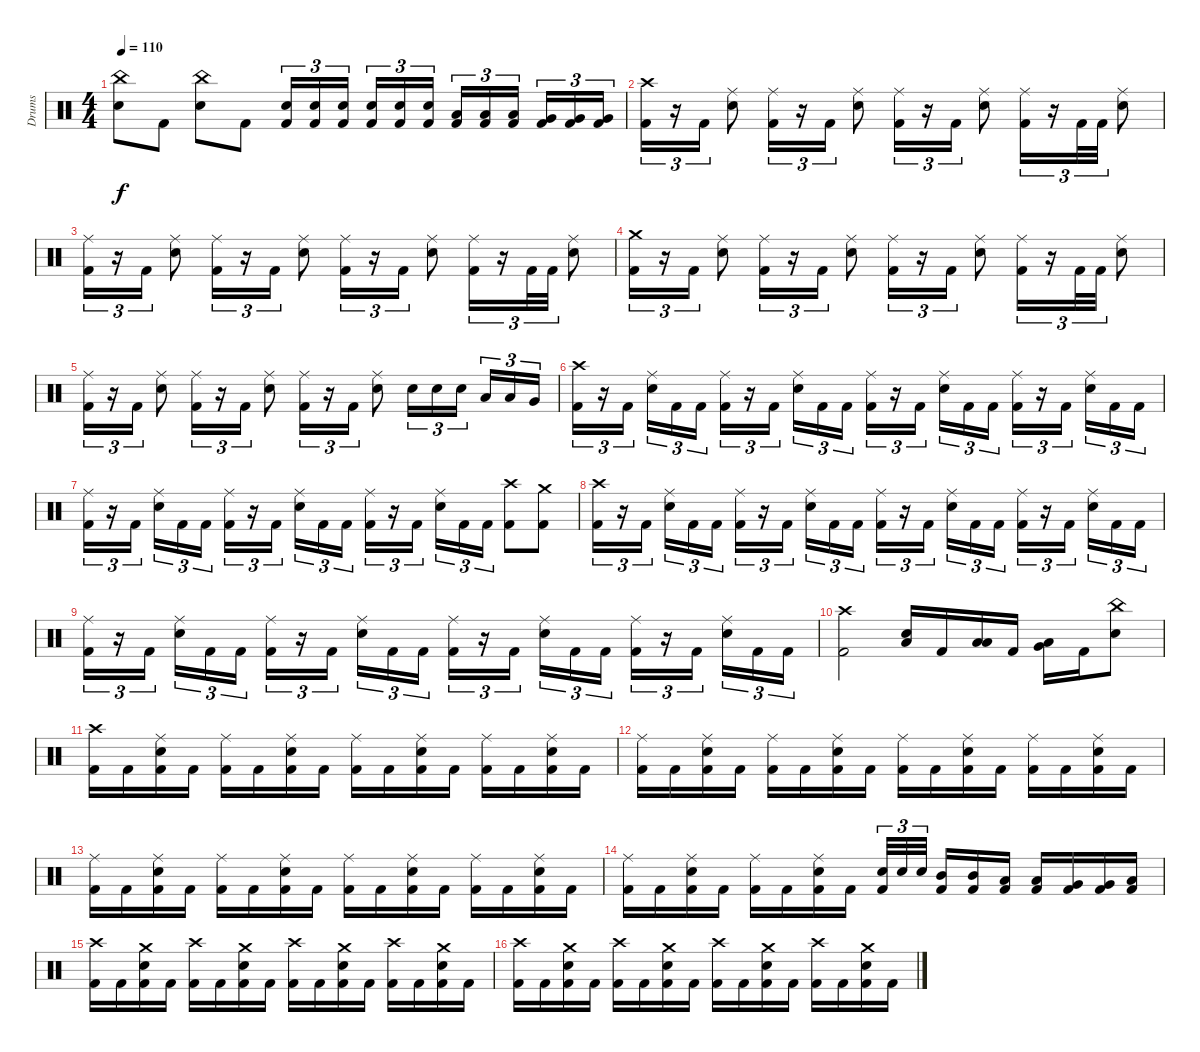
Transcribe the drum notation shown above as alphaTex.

\track ("Drums" "Drums") {instrument percussion}
\staff {score}
\articulation defaults
\ts (4 4)
\tempo 110
\clef neutral
\ks c
("China (hit)" "Electric Snare (hit)").8{dy f} "Kick (hit) 2".8 ("China (hit)" "Electric Snare (hit)").8 "Kick (hit) 2".8 ("Electric Snare (hit)" "Kick (hit) 2").16{tu (3 2)} ("Electric Snare (hit)" "Kick (hit) 2").16{tu (3 2)} ("Electric Snare (hit)" "Kick (hit) 2").16{tu (3 2)} ("Electric Snare (hit)" "Kick (hit) 2").16{tu (3 2)} ("Electric Snare (hit)" "Kick (hit) 2").16{tu (3 2)} ("Electric Snare (hit)" "Kick (hit) 2").16{tu (3 2)} ("Low Tom (hit)" "Kick (hit) 2").16{tu (3 2)} ("Low Tom (hit)" "Kick (hit) 2").16{tu (3 2)} ("Low Tom (hit)" "Kick (hit) 2").16{tu (3 2)} ("Very Low Tom (hit)" "Kick (hit) 2").16{tu (3 2)} ("Very Low Tom (hit)" "Kick (hit) 2").16{tu (3 2)} ("Very Low Tom (hit)" "Kick (hit) 2").16{tu (3 2)} |
("Crash high (hit)" "Kick (hit) 2").16{tu (3 2)} r.16{tu (3 2)} "Kick (hit) 2".16{tu (3 2)} ("Ride (middle)" "Electric Snare (hit)").8 ("Ride (middle)" "Kick (hit) 2").16{tu (3 2)} r.16{tu (3 2)} "Kick (hit) 2".16{tu (3 2)} ("Ride (middle)" "Electric Snare (hit)").8 ("Ride (middle)" "Kick (hit) 2").16{tu (3 2)} r.16{tu (3 2)} "Kick (hit) 2".16{tu (3 2)} ("Ride (middle)" "Electric Snare (hit)").8 ("Ride (middle)" "Kick (hit) 2").16{tu (3 2)} r.16{tu (3 2)} "Kick (hit) 2".32{tu (3 2)} "Kick (hit) 2".32{tu (3 2)} ("Ride (middle)" "Electric Snare (hit)").8 |
("Ride (middle)" "Kick (hit) 2").16{tu (3 2)} r.16{tu (3 2)} "Kick (hit) 2".16{tu (3 2)} ("Ride (middle)" "Electric Snare (hit)").8 ("Ride (middle)" "Kick (hit) 2").16{tu (3 2)} r.16{tu (3 2)} "Kick (hit) 2".16{tu (3 2)} ("Ride (middle)" "Electric Snare (hit)").8 ("Ride (middle)" "Kick (hit) 2").16{tu (3 2)} r.16{tu (3 2)} "Kick (hit) 2".16{tu (3 2)} ("Ride (middle)" "Electric Snare (hit)").8 ("Ride (middle)" "Kick (hit) 2").16{tu (3 2)} r.16{tu (3 2)} "Kick (hit) 2".32{tu (3 2)} "Kick (hit) 2".32{tu (3 2)} ("Ride (middle)" "Electric Snare (hit)").8 |
("Crash medium (hit)" "Kick (hit) 2").16{tu (3 2)} r.16{tu (3 2)} "Kick (hit) 2".16{tu (3 2)} ("Ride (middle)" "Electric Snare (hit)").8 ("Ride (middle)" "Kick (hit) 2").16{tu (3 2)} r.16{tu (3 2)} "Kick (hit) 2".16{tu (3 2)} ("Ride (middle)" "Electric Snare (hit)").8 ("Ride (middle)" "Kick (hit) 2").16{tu (3 2)} r.16{tu (3 2)} "Kick (hit) 2".16{tu (3 2)} ("Ride (middle)" "Electric Snare (hit)").8 ("Ride (middle)" "Kick (hit) 2").16{tu (3 2)} r.16{tu (3 2)} "Kick (hit) 2".32{tu (3 2)} "Kick (hit) 2".32{tu (3 2)} ("Ride (middle)" "Electric Snare (hit)").8 |
("Ride (middle)" "Kick (hit) 2").16{tu (3 2)} r.16{tu (3 2)} "Kick (hit) 2".16{tu (3 2)} ("Ride (middle)" "Electric Snare (hit)").8 ("Ride (middle)" "Kick (hit) 2").16{tu (3 2)} r.16{tu (3 2)} "Kick (hit) 2".16{tu (3 2)} ("Ride (middle)" "Electric Snare (hit)").8 ("Ride (middle)" "Kick (hit) 2").16{tu (3 2)} r.16{tu (3 2)} "Kick (hit) 2".16{tu (3 2)} ("Ride (middle)" "Electric Snare (hit)").8 "Electric Snare (hit)".16{tu (3 2)} "Electric Snare (hit)".16{tu (3 2)} "Electric Snare (hit)".16{tu (3 2)} "Low Tom (hit)".16{tu (3 2)} "Low Tom (hit)".16{tu (3 2)} "Very Low Tom (hit)".16{tu (3 2)} |
("Crash high (hit)" "Kick (hit) 2").16{tu (3 2)} r.16{tu (3 2)} "Kick (hit) 2".16{tu (3 2)} ("Ride (middle)" "Electric Snare (hit)").16{tu (3 2)} "Kick (hit) 2".16{tu (3 2)} "Kick (hit) 2".16{tu (3 2)} ("Ride (middle)" "Kick (hit) 2").16{tu (3 2)} r.16{tu (3 2)} "Kick (hit) 2".16{tu (3 2)} ("Ride (middle)" "Electric Snare (hit)").16{tu (3 2)} "Kick (hit) 2".16{tu (3 2)} "Kick (hit) 2".16{tu (3 2)} ("Ride (middle)" "Kick (hit) 2").16{tu (3 2)} r.16{tu (3 2)} "Kick (hit) 2".16{tu (3 2)} ("Ride (middle)" "Electric Snare (hit)").16{tu (3 2)} "Kick (hit) 2".16{tu (3 2)} "Kick (hit) 2".16{tu (3 2)} ("Ride (middle)" "Kick (hit) 2").16{tu (3 2)} r.16{tu (3 2)} "Kick (hit) 2".16{tu (3 2)} ("Ride (middle)" "Electric Snare (hit)").16{tu (3 2)} "Kick (hit) 2".16{tu (3 2)} "Kick (hit) 2".16{tu (3 2)} |
("Ride (middle)" "Kick (hit) 2").16{tu (3 2)} r.16{tu (3 2)} "Kick (hit) 2".16{tu (3 2)} ("Ride (middle)" "Electric Snare (hit)").16{tu (3 2)} "Kick (hit) 2".16{tu (3 2)} "Kick (hit) 2".16{tu (3 2)} ("Ride (middle)" "Kick (hit) 2").16{tu (3 2)} r.16{tu (3 2)} "Kick (hit) 2".16{tu (3 2)} ("Ride (middle)" "Electric Snare (hit)").16{tu (3 2)} "Kick (hit) 2".16{tu (3 2)} "Kick (hit) 2".16{tu (3 2)} ("Ride (middle)" "Kick (hit) 2").16{tu (3 2)} r.16{tu (3 2)} "Kick (hit) 2".16{tu (3 2)} ("Ride (middle)" "Electric Snare (hit)").16{tu (3 2)} "Kick (hit) 2".16{tu (3 2)} "Kick (hit) 2".16{tu (3 2)} ("Crash high (hit)" "Kick (hit) 2").8 ("Crash medium (hit)" "Kick (hit) 2").8 |
("Crash high (hit)" "Kick (hit) 2").16{tu (3 2)} r.16{tu (3 2)} "Kick (hit) 2".16{tu (3 2)} ("Ride (middle)" "Electric Snare (hit)").16{tu (3 2)} "Kick (hit) 2".16{tu (3 2)} "Kick (hit) 2".16{tu (3 2)} ("Ride (middle)" "Kick (hit) 2").16{tu (3 2)} r.16{tu (3 2)} "Kick (hit) 2".16{tu (3 2)} ("Ride (middle)" "Electric Snare (hit)").16{tu (3 2)} "Kick (hit) 2".16{tu (3 2)} "Kick (hit) 2".16{tu (3 2)} ("Ride (middle)" "Kick (hit) 2").16{tu (3 2)} r.16{tu (3 2)} "Kick (hit) 2".16{tu (3 2)} ("Ride (middle)" "Electric Snare (hit)").16{tu (3 2)} "Kick (hit) 2".16{tu (3 2)} "Kick (hit) 2".16{tu (3 2)} ("Ride (middle)" "Kick (hit) 2").16{tu (3 2)} r.16{tu (3 2)} "Kick (hit) 2".16{tu (3 2)} ("Ride (middle)" "Electric Snare (hit)").16{tu (3 2)} "Kick (hit) 2".16{tu (3 2)} "Kick (hit) 2".16{tu (3 2)} |
("Ride (middle)" "Kick (hit) 2").16{tu (3 2)} r.16{tu (3 2)} "Kick (hit) 2".16{tu (3 2)} ("Ride (middle)" "Electric Snare (hit)").16{tu (3 2)} "Kick (hit) 2".16{tu (3 2)} "Kick (hit) 2".16{tu (3 2)} ("Ride (middle)" "Kick (hit) 2").16{tu (3 2)} r.16{tu (3 2)} "Kick (hit) 2".16{tu (3 2)} ("Ride (middle)" "Electric Snare (hit)").16{tu (3 2)} "Kick (hit) 2".16{tu (3 2)} "Kick (hit) 2".16{tu (3 2)} ("Ride (middle)" "Kick (hit) 2").16{tu (3 2)} r.16{tu (3 2)} "Kick (hit) 2".16{tu (3 2)} ("Ride (middle)" "Electric Snare (hit)").16{tu (3 2)} "Kick (hit) 2".16{tu (3 2)} "Kick (hit) 2".16{tu (3 2)} ("Ride (middle)" "Kick (hit) 2").16{tu (3 2)} r.16{tu (3 2)} "Kick (hit) 2".16{tu (3 2)} ("Ride (middle)" "Electric Snare (hit)").16{tu (3 2)} "Kick (hit) 2".16{tu (3 2)} "Kick (hit) 2".16{tu (3 2)} |
("Crash high (hit)" "Kick (hit) 2").2 ("Low Floor Tom (hit)" "Electric Snare (hit)").16 "Kick (hit) 2".16 ("Low Tom (hit)" "Low Floor Tom (hit)").16 "Kick (hit) 2".16 ("Very Low Tom (hit)" "Low Floor Tom (hit)").16 "Kick (hit) 2".16 ("China (hit)" "Electric Snare (hit)").8 |
("Crash high (hit)" "Kick (hit) 2").16 "Kick (hit) 2".16 ("Ride (middle)" "Electric Snare (hit)" "Kick (hit) 2").16 "Kick (hit) 2".16 ("Ride (middle)" "Kick (hit) 2").16 "Kick (hit) 2".16 ("Ride (middle)" "Electric Snare (hit)" "Kick (hit) 2").16 "Kick (hit) 2".16 ("Ride (middle)" "Kick (hit) 2").16 "Kick (hit) 2".16 ("Ride (middle)" "Electric Snare (hit)" "Kick (hit) 2").16 "Kick (hit) 2".16 ("Ride (middle)" "Kick (hit) 2").16 "Kick (hit) 2".16 ("Ride (middle)" "Electric Snare (hit)" "Kick (hit) 2").16 "Kick (hit) 2".16 |
("Ride (middle)" "Kick (hit) 2").16 "Kick (hit) 2".16 ("Ride (middle)" "Electric Snare (hit)" "Kick (hit) 2").16 "Kick (hit) 2".16 ("Ride (middle)" "Kick (hit) 2").16 "Kick (hit) 2".16 ("Ride (middle)" "Electric Snare (hit)" "Kick (hit) 2").16 "Kick (hit) 2".16 ("Ride (middle)" "Kick (hit) 2").16 "Kick (hit) 2".16 ("Ride (middle)" "Electric Snare (hit)" "Kick (hit) 2").16 "Kick (hit) 2".16 ("Ride (middle)" "Kick (hit) 2").16 "Kick (hit) 2".16 ("Ride (middle)" "Electric Snare (hit)" "Kick (hit) 2").16 "Kick (hit) 2".16 |
("Ride (middle)" "Kick (hit) 2").16 "Kick (hit) 2".16 ("Ride (middle)" "Electric Snare (hit)" "Kick (hit) 2").16 "Kick (hit) 2".16 ("Ride (middle)" "Kick (hit) 2").16 "Kick (hit) 2".16 ("Ride (middle)" "Electric Snare (hit)" "Kick (hit) 2").16 "Kick (hit) 2".16 ("Ride (middle)" "Kick (hit) 2").16 "Kick (hit) 2".16 ("Ride (middle)" "Electric Snare (hit)" "Kick (hit) 2").16 "Kick (hit) 2".16 ("Ride (middle)" "Kick (hit) 2").16 "Kick (hit) 2".16 ("Ride (middle)" "Electric Snare (hit)" "Kick (hit) 2").16 "Kick (hit) 2".16 |
("Ride (middle)" "Kick (hit) 2").16 "Kick (hit) 2".16 ("Ride (middle)" "Electric Snare (hit)" "Kick (hit) 2").16 "Kick (hit) 2".16 ("Ride (middle)" "Kick (hit) 2").16 "Kick (hit) 2".16 ("Ride (middle)" "Electric Snare (hit)" "Kick (hit) 2").16 "Kick (hit) 2".16 ("Electric Snare (hit)" "Kick (hit) 2").32{tu (3 2)} "Electric Snare (hit)".32{tu (3 2)} "Electric Snare (hit)".32{tu (3 2)} ("Mid Tom (hit)" "Kick (hit) 2").16 ("Mid Tom (hit)" "Kick (hit) 2").16 ("Low Tom (hit)" "Kick (hit) 2").16 ("Low Tom (hit)" "Kick (hit) 2").16 ("Very Low Tom (hit)" "Kick (hit) 2").16 ("Very Low Tom (hit)" "Kick (hit) 2").16 ("Low Floor Tom (hit)" "Kick (hit) 2").16 |
("Crash high (hit)" "Kick (hit) 2").16 "Kick (hit) 2".16 ("Crash medium (hit)" "Electric Snare (hit)" "Kick (hit) 2").16 "Kick (hit) 2".16 ("Crash high (hit)" "Kick (hit) 2").16 "Kick (hit) 2".16 ("Crash medium (hit)" "Electric Snare (hit)" "Kick (hit) 2").16 "Kick (hit) 2".16 ("Crash high (hit)" "Kick (hit) 2").16 "Kick (hit) 2".16 ("Crash medium (hit)" "Electric Snare (hit)" "Kick (hit) 2").16 "Kick (hit) 2".16 ("Crash high (hit)" "Kick (hit) 2").16 "Kick (hit) 2".16 ("Crash medium (hit)" "Electric Snare (hit)" "Kick (hit) 2").16 "Kick (hit) 2".16 |
("Crash high (hit)" "Kick (hit) 2").16 "Kick (hit) 2".16 ("Crash medium (hit)" "Electric Snare (hit)" "Kick (hit) 2").16 "Kick (hit) 2".16 ("Crash high (hit)" "Kick (hit) 2").16 "Kick (hit) 2".16 ("Crash medium (hit)" "Electric Snare (hit)" "Kick (hit) 2").16 "Kick (hit) 2".16 ("Crash high (hit)" "Kick (hit) 2").16 "Kick (hit) 2".16 ("Crash medium (hit)" "Electric Snare (hit)" "Kick (hit) 2").16 "Kick (hit) 2".16 ("Crash high (hit)" "Kick (hit) 2").16 "Kick (hit) 2".16 ("Crash medium (hit)" "Electric Snare (hit)" "Kick (hit) 2").16 "Kick (hit) 2".16
